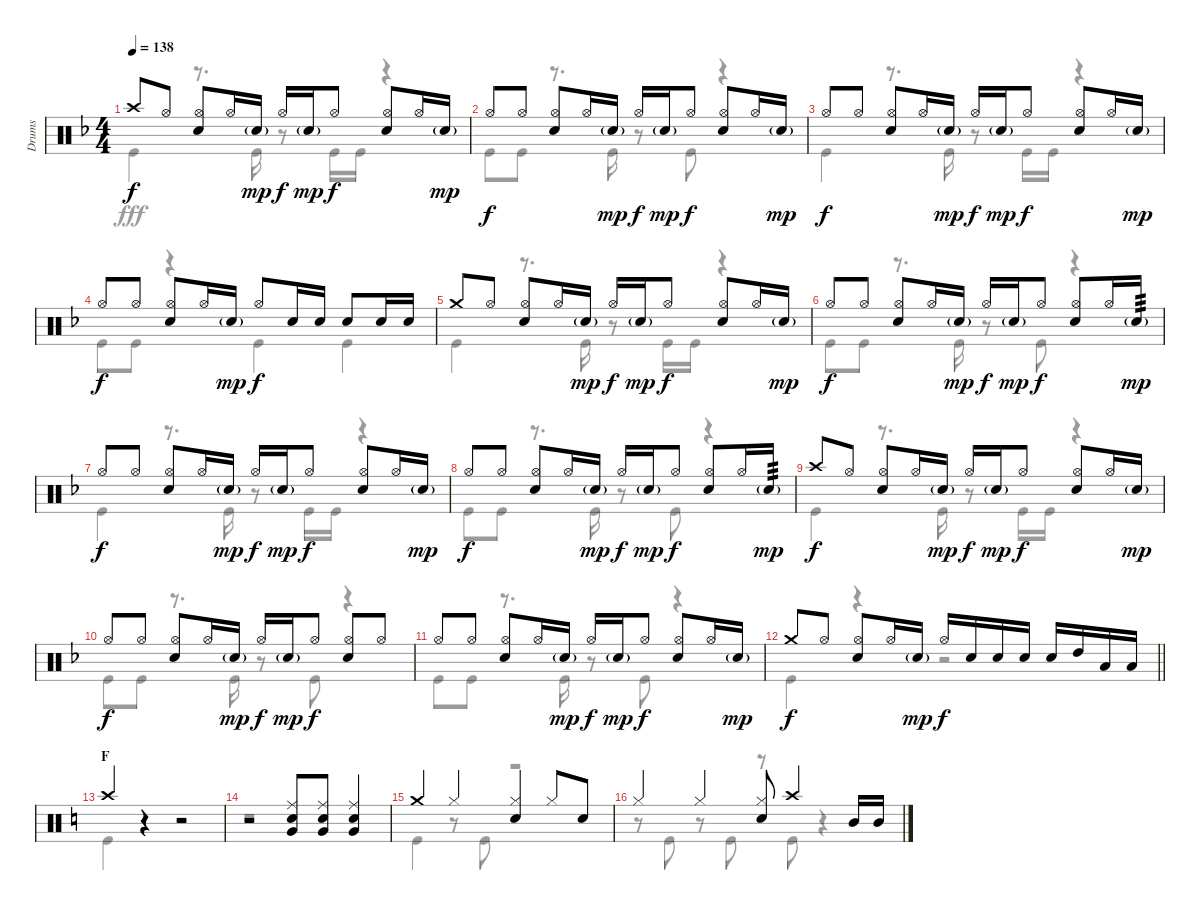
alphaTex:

\track ("Drums" "Drums") {instrument percussion}
\staff {score}
\articulation defaults
\voice
\ts (4 4)
\tempo 138
\clef neutral
\ks f "Crash high (hit)".8{dy f} "Hi-Hat (open)".8
("Hi-Hat (open)" "Snare (hit) 2").8 "Hi-Hat (open)".16 "Snare (hit) 2"{g}.16{dy mp} "Hi-Hat (open)".16{dy f} "Snare (hit) 2"{g}.16{dy mp} "Hi-Hat (open)".8{dy f} ("Hi-Hat (open)" "Snare (hit) 2").8 "Hi-Hat (open)".16 "Snare (hit) 2"{g}.16{dy mp} |
"Hi-Hat (open)".8{dy f} "Hi-Hat (open)".8 ("Hi-Hat (open)" "Snare (hit) 2").8 "Hi-Hat (open)".16 "Snare (hit) 2"{g}.16{dy mp} "Hi-Hat (open)".16{dy f} "Snare (hit) 2"{g}.16{dy mp} "Hi-Hat (open)".8{dy f} ("Hi-Hat (open)" "Snare (hit) 2").8 "Hi-Hat (open)".16 "Snare (hit) 2"{g}.16{dy mp} |
"Hi-Hat (open)".8{dy f} "Hi-Hat (open)".8 ("Hi-Hat (open)" "Snare (hit) 2").8 "Hi-Hat (open)".16 "Snare (hit) 2"{g}.16{dy mp} "Hi-Hat (open)".16{dy f} "Snare (hit) 2"{g}.16{dy mp} "Hi-Hat (open)".8{dy f} ("Hi-Hat (open)" "Snare (hit) 2").8 "Hi-Hat (open)".16 "Snare (hit) 2"{g}.16{dy mp} |
"Hi-Hat (open)".8{dy f} "Hi-Hat (open)".8 ("Hi-Hat (open)" "Snare (hit) 2").8 "Hi-Hat (open)".16 "Snare (hit) 2"{g}.16{dy mp} "Hi-Hat (open)".8{dy f} "Snare (hit) 2".16 "Snare (hit) 2".16 "Snare (hit) 2".8 "Snare (hit) 2".16 "Snare (hit) 2".16 |
"Crash medium (hit)".8 "Hi-Hat (open)".8 ("Hi-Hat (open)" "Snare (hit) 2").8 "Hi-Hat (open)".16 "Snare (hit) 2"{g}.16{dy mp} "Hi-Hat (open)".16{dy f} "Snare (hit) 2"{g}.16{dy mp} "Hi-Hat (open)".8{dy f} ("Hi-Hat (open)" "Snare (hit) 2").8 "Hi-Hat (open)".16 "Snare (hit) 2"{g}.16{dy mp} |
"Hi-Hat (open)".8{dy f} "Hi-Hat (open)".8 ("Hi-Hat (open)" "Snare (hit) 2").8 "Hi-Hat (open)".16 "Snare (hit) 2"{g}.16{dy mp} "Hi-Hat (open)".16{dy f} "Snare (hit) 2"{g}.16{dy mp} "Hi-Hat (open)".8{dy f} ("Hi-Hat (open)" "Snare (hit) 2").8 "Hi-Hat (open)".16 "Snare (hit) 2"{g}.16{tp 3 dy mp} |
"Hi-Hat (open)".8{dy f} "Hi-Hat (open)".8 ("Hi-Hat (open)" "Snare (hit) 2").8 "Hi-Hat (open)".16 "Snare (hit) 2"{g}.16{dy mp} "Hi-Hat (open)".16{dy f} "Snare (hit) 2"{g}.16{dy mp} "Hi-Hat (open)".8{dy f} ("Hi-Hat (open)" "Snare (hit) 2").8 "Hi-Hat (open)".16 "Snare (hit) 2"{g}.16{dy mp} |
"Hi-Hat (open)".8{dy f} "Hi-Hat (open)".8 ("Hi-Hat (open)" "Snare (hit) 2").8 "Hi-Hat (open)".16 "Snare (hit) 2"{g}.16{dy mp} "Hi-Hat (open)".16{dy f} "Snare (hit) 2"{g}.16{dy mp} "Hi-Hat (open)".8{dy f} ("Hi-Hat (open)" "Snare (hit) 2").8 "Hi-Hat (open)".16 "Snare (hit) 2"{g}.16{tp 3 dy mp} |
"Crash high (hit)".8{dy f} "Hi-Hat (open)".8 ("Hi-Hat (open)" "Snare (hit) 2").8 "Hi-Hat (open)".16 "Snare (hit) 2"{g}.16{dy mp} "Hi-Hat (open)".16{dy f} "Snare (hit) 2"{g}.16{dy mp} "Hi-Hat (open)".8{dy f} ("Hi-Hat (open)" "Snare (hit) 2").8 "Hi-Hat (open)".16 "Snare (hit) 2"{g}.16{dy mp} |
"Hi-Hat (open)".8{dy f} "Hi-Hat (open)".8 ("Hi-Hat (open)" "Snare (hit) 2").8 "Hi-Hat (open)".16 "Snare (hit) 2"{g}.16{dy mp} "Hi-Hat (open)".16{dy f} "Snare (hit) 2"{g}.16{dy mp} "Hi-Hat (open)".8{dy f} ("Hi-Hat (open)" "Snare (hit) 2").8 "Hi-Hat (open)".8 |
"Hi-Hat (open)".8 "Hi-Hat (open)".8 ("Hi-Hat (open)" "Snare (hit) 2").8 "Hi-Hat (open)".16 "Snare (hit) 2"{g}.16{dy mp} "Hi-Hat (open)".16{dy f} "Snare (hit) 2"{g}.16{dy mp} "Hi-Hat (open)".8{dy f} ("Hi-Hat (open)" "Snare (hit) 2").8 "Hi-Hat (open)".16 "Snare (hit) 2"{g}.16{dy mp} |
\barLineRight lightlight "Crash medium (hit)".8{dy f} "Hi-Hat (open)".8
("Hi-Hat (open)" "Snare (hit) 2").8 "Hi-Hat (open)".16 "Snare (hit) 2"{g}.16{dy mp} "Hi-Hat (open)".16{dy f} "Snare (hit) 2".16 "Snare (hit) 2".16 "Snare (hit) 2".16 "Snare (hit) 2".16 "High Tom (hit)".16 "Low Tom (hit)".16 "Low Tom (hit)".16 |
\section ("" "F")
\ks c "Crash high (hit)".4
r.4 r.2 |
r.2 ("Ride (middle)" "Snare (hit) 2" "Very Low Tom (hit)").8 ("Ride (middle)" "Snare (hit) 2" "Very Low Tom (hit)").8 ("Ride (middle)" "Snare (hit) 2" "Very Low Tom (hit)").4 |
"Crash medium (hit)".4 "Hi-Hat (closed)".4 ("Hi-Hat (closed)" "Snare (hit) 2").4 "Hi-Hat (closed)".8 "Snare (hit) 2".8 |
"Hi-Hat (closed)".4 "Hi-Hat (closed)".4 ("Hi-Hat (closed)" "Snare (hit) 2").8 "Crash high (hit)".4 "Mid Tom (hit)".16 "Mid Tom (hit)".16
\voice
\clef neutral
\ottava regular
\simile none
\ks f "Kick (hit)".4{dy fff}
r.8{d} "Kick (hit)".16 r.8 "Kick (hit)".16 "Kick (hit)".16 r.4 |
"Kick (hit)".8 "Kick (hit)".8 r.8{d} "Kick (hit)".16 r.8 "Kick (hit)".8 r.4 |
"Kick (hit)".4 r.8{d} "Kick (hit)".16 r.8 "Kick (hit)".16 "Kick (hit)".16 r.4 |
"Kick (hit)".8 "Kick (hit)".8 r.4 "Kick (hit)".4 "Kick (hit)".4 |
"Kick (hit)".4 r.8{d} "Kick (hit)".16 r.8 "Kick (hit)".16 "Kick (hit)".16 r.4 |
"Kick (hit)".8 "Kick (hit)".8 r.8{d} "Kick (hit)".16 r.8 "Kick (hit)".8 r.4 |
"Kick (hit)".4 r.8{d} "Kick (hit)".16 r.8 "Kick (hit)".16 "Kick (hit)".16 r.4 |
"Kick (hit)".8 "Kick (hit)".8 r.8{d} "Kick (hit)".16 r.8 "Kick (hit)".8 r.4 |
"Kick (hit)".4 r.8{d} "Kick (hit)".16 r.8 "Kick (hit)".16 "Kick (hit)".16 r.4 |
"Kick (hit)".8 "Kick (hit)".8 r.8{d} "Kick (hit)".16 r.8 "Kick (hit)".8 r.4 |
"Kick (hit)".8 "Kick (hit)".8 r.8{d} "Kick (hit)".16 r.8 "Kick (hit)".8 r.4 |
\barLineRight lightlight "Kick (hit)".4
r.4 r.2 |
\ks c "Kick (hit)".4
r.4 r.2 |
r.1 |
"Kick (hit)".4 r.8 "Kick (hit)".8 r.2 |
r.8 "Kick (hit)".8 r.8 "Kick (hit)".8 r.8 "Kick (hit)".8 r.4
